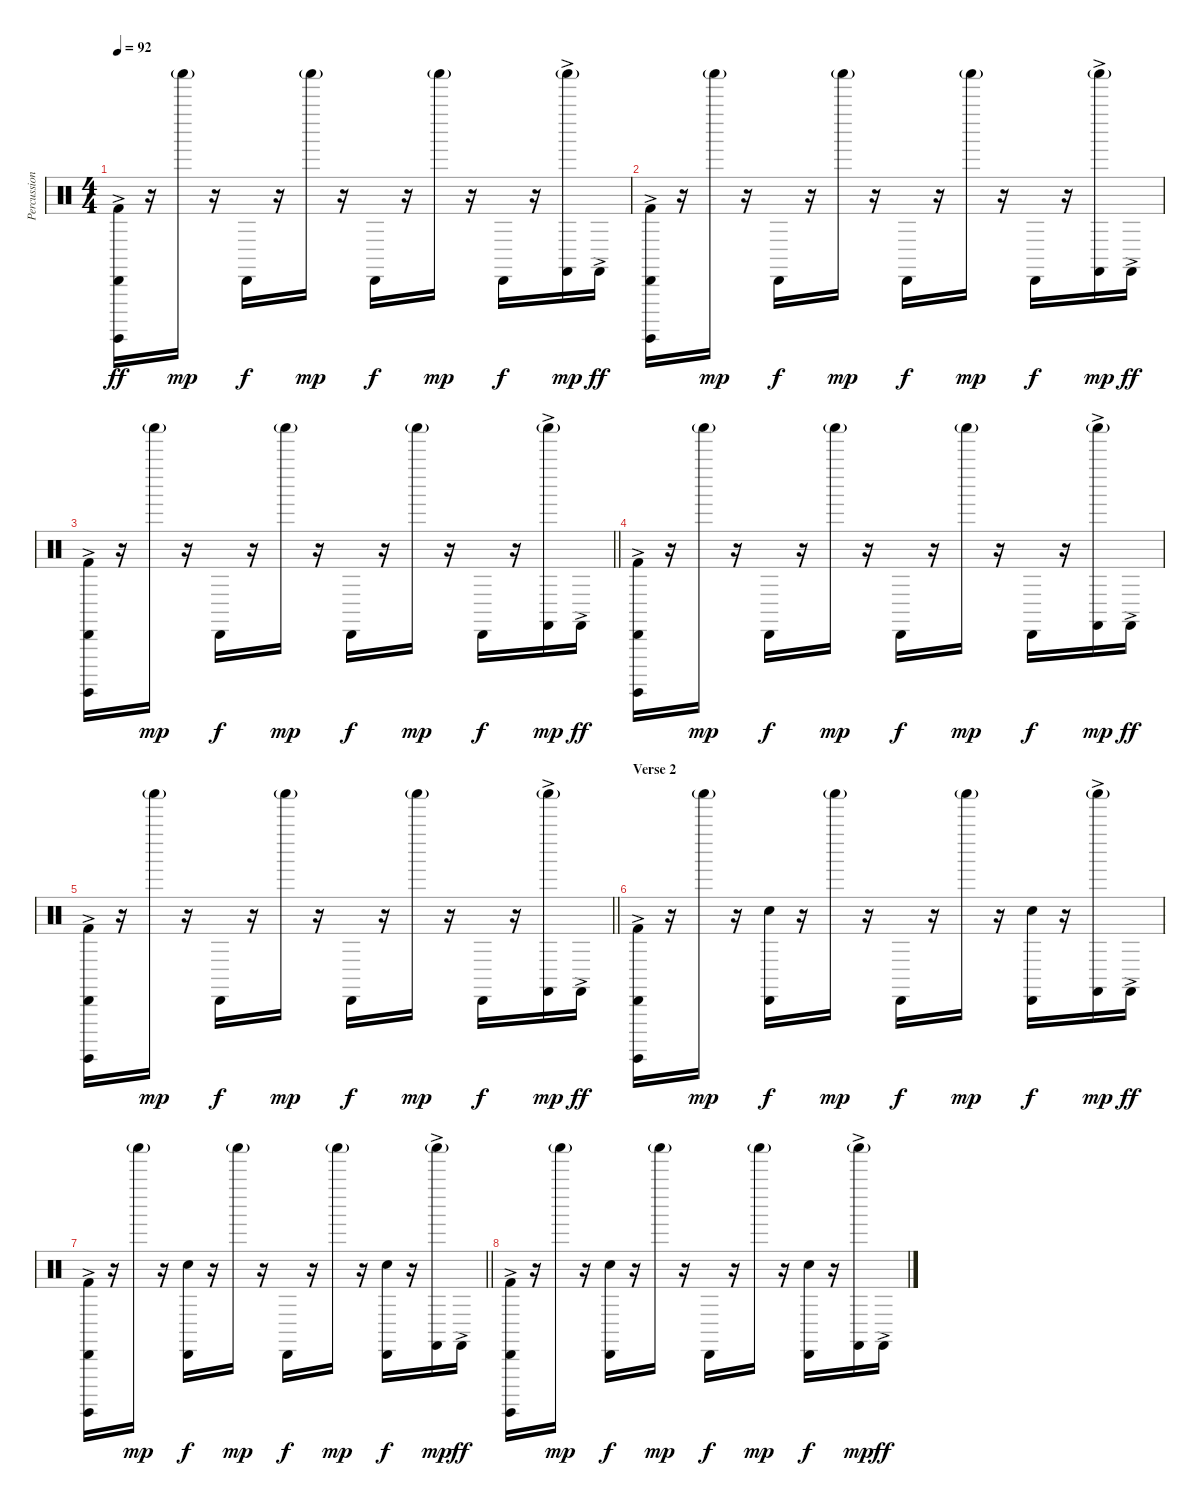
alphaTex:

\track ("Percussion" "Percussion") {instrument percussion}
\staff {score}
\articulation defaults
\ts (4 4)
\tempo 92
\clef neutral
\ks c
("Kick (hit) 2" "Surdo (hit)"{ac} "Cabasa (hit)").16{dy ff} r.16 "Shaker (hit)"{g}.16{dy mp} r.16 "Cabasa (hit)".16{dy f} r.16 "Shaker (hit)"{g}.16{dy mp} r.16 "Cabasa (hit)".16{dy f} r.16 "Shaker (hit)"{g}.16{dy mp} r.16 "Cabasa (hit)".16{dy f} r.16 ("Castanets (hit)"{ac} "Shaker (hit)"{g}).16{dy mp} "Castanets (hit)"{ac}.16{dy ff} |
("Kick (hit) 2" "Surdo (hit)"{ac} "Cabasa (hit)").16 r.16 "Shaker (hit)"{g}.16{dy mp} r.16 "Cabasa (hit)".16{dy f} r.16 "Shaker (hit)"{g}.16{dy mp} r.16 "Cabasa (hit)".16{dy f} r.16 "Shaker (hit)"{g}.16{dy mp} r.16 "Cabasa (hit)".16{dy f} r.16 ("Castanets (hit)"{ac} "Shaker (hit)"{g}).16{dy mp} "Castanets (hit)"{ac}.16{dy ff} |
\barLineRight lightlight
("Kick (hit) 2" "Surdo (hit)"{ac} "Cabasa (hit)").16 r.16 "Shaker (hit)"{g}.16{dy mp} r.16 "Cabasa (hit)".16{dy f} r.16 "Shaker (hit)"{g}.16{dy mp} r.16 "Cabasa (hit)".16{dy f} r.16 "Shaker (hit)"{g}.16{dy mp} r.16 "Cabasa (hit)".16{dy f} r.16 ("Castanets (hit)"{ac} "Shaker (hit)"{g}).16{dy mp} "Castanets (hit)"{ac}.16{dy ff} |
("Kick (hit) 2" "Surdo (hit)"{ac} "Cabasa (hit)").16 r.16 "Shaker (hit)"{g}.16{dy mp} r.16 "Cabasa (hit)".16{dy f} r.16 "Shaker (hit)"{g}.16{dy mp} r.16 "Cabasa (hit)".16{dy f} r.16 "Shaker (hit)"{g}.16{dy mp} r.16 "Cabasa (hit)".16{dy f} r.16 ("Castanets (hit)"{ac} "Shaker (hit)"{g}).16{dy mp} "Castanets (hit)"{ac}.16{dy ff} |
\barLineRight lightlight
("Kick (hit) 2" "Surdo (hit)"{ac} "Cabasa (hit)").16 r.16 "Shaker (hit)"{g}.16{dy mp} r.16 "Cabasa (hit)".16{dy f} r.16 "Shaker (hit)"{g}.16{dy mp} r.16 "Cabasa (hit)".16{dy f} r.16 "Shaker (hit)"{g}.16{dy mp} r.16 "Cabasa (hit)".16{dy f} r.16 ("Castanets (hit)"{ac} "Shaker (hit)"{g}).16{dy mp} "Castanets (hit)"{ac}.16{dy ff} |
\section ("" "Verse 2")
("Kick (hit) 2" "Surdo (hit)"{ac} "Cabasa (hit)").16 r.16 "Shaker (hit)"{g}.16{dy mp} r.16 ("Snare (hit) 2" "Cabasa (hit)").16{dy f} r.16 "Shaker (hit)"{g}.16{dy mp} r.16 "Cabasa (hit)".16{dy f} r.16 "Shaker (hit)"{g}.16{dy mp} r.16 ("Snare (hit) 2" "Cabasa (hit)").16{dy f} r.16 ("Castanets (hit)"{ac} "Shaker (hit)"{g}).16{dy mp} "Castanets (hit)"{ac}.16{dy ff} |
\barLineRight lightlight
("Kick (hit) 2" "Surdo (hit)"{ac} "Cabasa (hit)").16 r.16 "Shaker (hit)"{g}.16{dy mp} r.16 ("Snare (hit) 2" "Cabasa (hit)").16{dy f} r.16 "Shaker (hit)"{g}.16{dy mp} r.16 "Cabasa (hit)".16{dy f} r.16 "Shaker (hit)"{g}.16{dy mp} r.16 ("Snare (hit) 2" "Cabasa (hit)").16{dy f} r.16 ("Castanets (hit)"{ac} "Shaker (hit)"{g}).16{dy mp} "Castanets (hit)"{ac}.16{dy ff} |
("Kick (hit) 2" "Surdo (hit)"{ac} "Cabasa (hit)").16 r.16 "Shaker (hit)"{g}.16{dy mp} r.16 ("Snare (hit) 2" "Cabasa (hit)").16{dy f} r.16 "Shaker (hit)"{g}.16{dy mp} r.16 "Cabasa (hit)".16{dy f} r.16 "Shaker (hit)"{g}.16{dy mp} r.16 ("Snare (hit) 2" "Cabasa (hit)").16{dy f} r.16 ("Castanets (hit)"{ac} "Shaker (hit)"{g}).16{dy mp} "Castanets (hit)"{ac}.16{dy ff}
